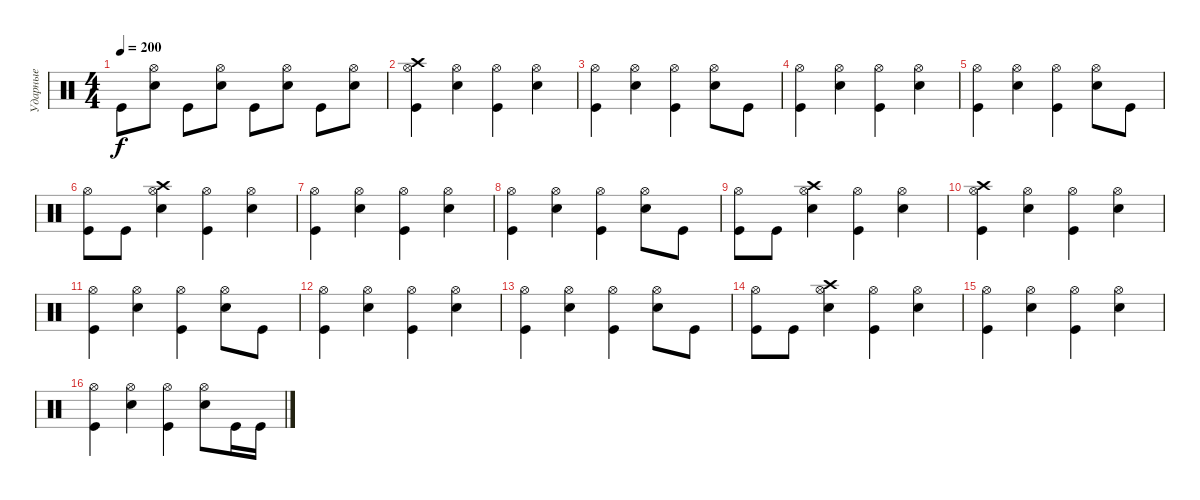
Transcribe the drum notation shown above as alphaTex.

\track ("Ударные" "Ударные") {instrument percussion}
\staff {score}
\articulation defaults
\ts (4 4)
\tempo 200
\clef neutral
\ks c "Kick (hit)".8{dy f}
("Hi-Hat (open)" "Electric Snare (hit)").8 "Kick (hit)".8 ("Hi-Hat (open)" "Electric Snare (hit)").8 "Kick (hit)".8 ("Hi-Hat (open)" "Electric Snare (hit)").8 "Kick (hit)".8 ("Hi-Hat (open)" "Electric Snare (hit)").8 |
("Hi-Hat (open)" "Crash high (hit)" "Kick (hit)").4 ("Hi-Hat (open)" "Electric Snare (hit)").4 ("Hi-Hat (open)" "Kick (hit)").4 ("Hi-Hat (open)" "Electric Snare (hit)").4 |
("Hi-Hat (open)" "Kick (hit)").4 ("Hi-Hat (open)" "Electric Snare (hit)").4 ("Hi-Hat (open)" "Kick (hit)").4 ("Hi-Hat (open)" "Electric Snare (hit)").8 "Kick (hit)".8 |
("Hi-Hat (open)" "Kick (hit)").4 ("Hi-Hat (open)" "Electric Snare (hit)").4 ("Hi-Hat (open)" "Kick (hit)").4 ("Hi-Hat (open)" "Electric Snare (hit)").4 |
("Hi-Hat (open)" "Kick (hit)").4 ("Hi-Hat (open)" "Electric Snare (hit)").4 ("Hi-Hat (open)" "Kick (hit)").4 ("Hi-Hat (open)" "Electric Snare (hit)").8 "Kick (hit)".8 |
("Hi-Hat (open)" "Kick (hit)").8 "Kick (hit)".8 ("Hi-Hat (open)" "Electric Snare (hit)" "Crash high (hit)").4 ("Hi-Hat (open)" "Kick (hit)").4 ("Hi-Hat (open)" "Electric Snare (hit)").4 |
("Hi-Hat (open)" "Kick (hit)").4 ("Hi-Hat (open)" "Electric Snare (hit)").4 ("Hi-Hat (open)" "Kick (hit)").4 ("Hi-Hat (open)" "Electric Snare (hit)").4 |
("Hi-Hat (open)" "Kick (hit)").4 ("Hi-Hat (open)" "Electric Snare (hit)").4 ("Hi-Hat (open)" "Kick (hit)").4 ("Hi-Hat (open)" "Electric Snare (hit)").8 "Kick (hit)".8 |
("Hi-Hat (open)" "Kick (hit)").8 "Kick (hit)".8 ("Hi-Hat (open)" "Electric Snare (hit)" "Crash high (hit)").4 ("Hi-Hat (open)" "Kick (hit)").4 ("Hi-Hat (open)" "Electric Snare (hit)").4 |
("Hi-Hat (open)" "Crash high (hit)" "Kick (hit)").4 ("Hi-Hat (open)" "Electric Snare (hit)").4 ("Hi-Hat (open)" "Kick (hit)").4 ("Hi-Hat (open)" "Electric Snare (hit)").4 |
("Hi-Hat (open)" "Kick (hit)").4 ("Hi-Hat (open)" "Electric Snare (hit)").4 ("Hi-Hat (open)" "Kick (hit)").4 ("Hi-Hat (open)" "Electric Snare (hit)").8 "Kick (hit)".8 |
("Hi-Hat (open)" "Kick (hit)").4 ("Hi-Hat (open)" "Electric Snare (hit)").4 ("Hi-Hat (open)" "Kick (hit)").4 ("Hi-Hat (open)" "Electric Snare (hit)").4 |
("Hi-Hat (open)" "Kick (hit)").4 ("Hi-Hat (open)" "Electric Snare (hit)").4 ("Hi-Hat (open)" "Kick (hit)").4 ("Hi-Hat (open)" "Electric Snare (hit)").8 "Kick (hit)".8 |
("Hi-Hat (open)" "Kick (hit)").8 "Kick (hit)".8 ("Hi-Hat (open)" "Electric Snare (hit)" "Crash high (hit)").4 ("Hi-Hat (open)" "Kick (hit)").4 ("Hi-Hat (open)" "Electric Snare (hit)").4 |
("Hi-Hat (open)" "Kick (hit)").4 ("Hi-Hat (open)" "Electric Snare (hit)").4 ("Hi-Hat (open)" "Kick (hit)").4 ("Hi-Hat (open)" "Electric Snare (hit)").4 |
("Hi-Hat (open)" "Kick (hit)").4 ("Hi-Hat (open)" "Electric Snare (hit)").4 ("Hi-Hat (open)" "Kick (hit)").4 ("Hi-Hat (open)" "Electric Snare (hit)").8 "Kick (hit)".16 "Kick (hit)".16
